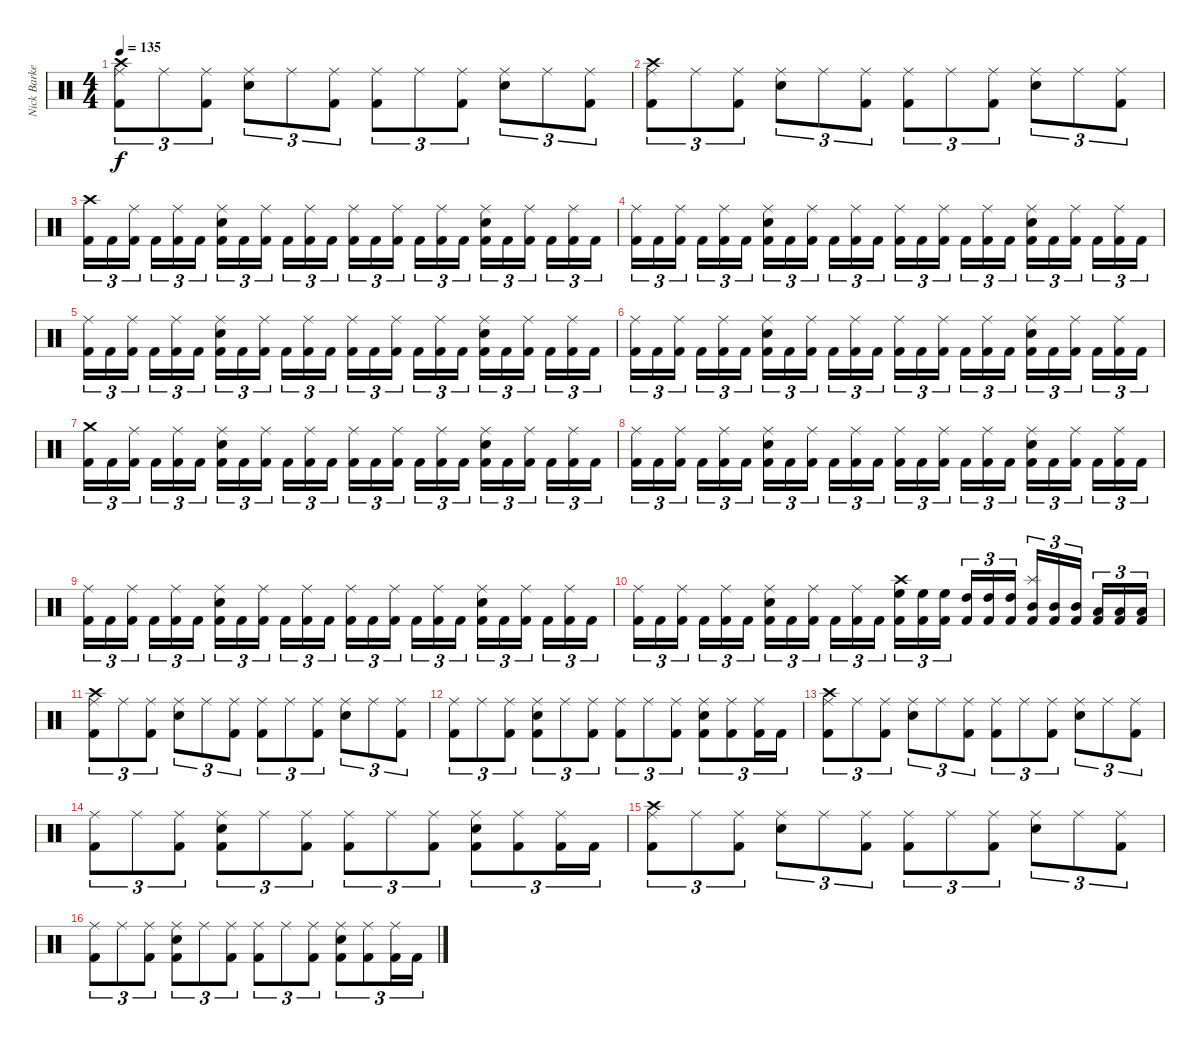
\track ("Nick Barker" "Nick Barke") {instrument percussion}
\staff {score}
\articulation defaults
\ts (4 4)
\tempo 135
\clef neutral
\ks c
("Crash high (hit)" "Ride (middle)" "Kick (hit) 2").8{tu (3 2) dy f} "Ride (middle)".8{tu (3 2)} ("Ride (middle)" "Kick (hit) 2").8{tu (3 2)} ("Ride (middle)" "Electric Snare (hit)").8{tu (3 2)} "Ride (middle)".8{tu (3 2)} ("Ride (middle)" "Kick (hit) 2").8{tu (3 2)} ("Ride (middle)" "Kick (hit) 2").8{tu (3 2)} "Ride (middle)".8{tu (3 2)} ("Ride (middle)" "Kick (hit) 2").8{tu (3 2)} ("Ride (middle)" "Electric Snare (hit)").8{tu (3 2)} "Ride (middle)".8{tu (3 2)} ("Ride (middle)" "Kick (hit) 2").8{tu (3 2)} |
("Crash high (hit)" "Ride (middle)" "Kick (hit) 2").8{tu (3 2)} "Ride (middle)".8{tu (3 2)} ("Ride (middle)" "Kick (hit) 2").8{tu (3 2)} ("Ride (middle)" "Electric Snare (hit)").8{tu (3 2)} "Ride (middle)".8{tu (3 2)} ("Ride (middle)" "Kick (hit) 2").8{tu (3 2)} ("Ride (middle)" "Kick (hit) 2").8{tu (3 2)} "Ride (middle)".8{tu (3 2)} ("Ride (middle)" "Kick (hit) 2").8{tu (3 2)} ("Ride (middle)" "Electric Snare (hit)").8{tu (3 2)} "Ride (middle)".8{tu (3 2)} ("Ride (middle)" "Kick (hit) 2").8{tu (3 2)} |
("Crash high (hit)" "Kick (hit) 2").16{tu (3 2)} "Kick (hit) 2".16{tu (3 2)} ("Ride (middle)" "Kick (hit) 2").16{tu (3 2)} "Kick (hit) 2".16{tu (3 2)} ("Ride (middle)" "Kick (hit) 2").16{tu (3 2)} "Kick (hit) 2".16{tu (3 2)} ("Ride (middle)" "Electric Snare (hit)" "Kick (hit) 2").16{tu (3 2)} "Kick (hit) 2".16{tu (3 2)} ("Ride (middle)" "Kick (hit) 2").16{tu (3 2)} "Kick (hit) 2".16{tu (3 2)} ("Ride (middle)" "Kick (hit) 2").16{tu (3 2)} "Kick (hit) 2".16{tu (3 2)} ("Ride (middle)" "Kick (hit) 2").16{tu (3 2)} "Kick (hit) 2".16{tu (3 2)} ("Ride (middle)" "Kick (hit) 2").16{tu (3 2)} "Kick (hit) 2".16{tu (3 2)} ("Ride (middle)" "Kick (hit) 2").16{tu (3 2)} "Kick (hit) 2".16{tu (3 2)} ("Ride (middle)" "Electric Snare (hit)" "Kick (hit) 2").16{tu (3 2)} "Kick (hit) 2".16{tu (3 2)} ("Ride (middle)" "Kick (hit) 2").16{tu (3 2)} "Kick (hit) 2".16{tu (3 2)} ("Ride (middle)" "Kick (hit) 2").16{tu (3 2)} "Kick (hit) 2".16{tu (3 2)} |
("Ride (middle)" "Kick (hit) 2").16{tu (3 2)} "Kick (hit) 2".16{tu (3 2)} ("Ride (middle)" "Kick (hit) 2").16{tu (3 2)} "Kick (hit) 2".16{tu (3 2)} ("Ride (middle)" "Kick (hit) 2").16{tu (3 2)} "Kick (hit) 2".16{tu (3 2)} ("Ride (middle)" "Electric Snare (hit)" "Kick (hit) 2").16{tu (3 2)} "Kick (hit) 2".16{tu (3 2)} ("Ride (middle)" "Kick (hit) 2").16{tu (3 2)} "Kick (hit) 2".16{tu (3 2)} ("Ride (middle)" "Kick (hit) 2").16{tu (3 2)} "Kick (hit) 2".16{tu (3 2)} ("Ride (middle)" "Kick (hit) 2").16{tu (3 2)} "Kick (hit) 2".16{tu (3 2)} ("Ride (middle)" "Kick (hit) 2").16{tu (3 2)} "Kick (hit) 2".16{tu (3 2)} ("Ride (middle)" "Kick (hit) 2").16{tu (3 2)} "Kick (hit) 2".16{tu (3 2)} ("Ride (middle)" "Electric Snare (hit)" "Kick (hit) 2").16{tu (3 2)} "Kick (hit) 2".16{tu (3 2)} ("Ride (middle)" "Kick (hit) 2").16{tu (3 2)} "Kick (hit) 2".16{tu (3 2)} ("Ride (middle)" "Kick (hit) 2").16{tu (3 2)} "Kick (hit) 2".16{tu (3 2)} |
("Ride (middle)" "Kick (hit) 2").16{tu (3 2)} "Kick (hit) 2".16{tu (3 2)} ("Ride (middle)" "Kick (hit) 2").16{tu (3 2)} "Kick (hit) 2".16{tu (3 2)} ("Ride (middle)" "Kick (hit) 2").16{tu (3 2)} "Kick (hit) 2".16{tu (3 2)} ("Ride (middle)" "Electric Snare (hit)" "Kick (hit) 2").16{tu (3 2)} "Kick (hit) 2".16{tu (3 2)} ("Ride (middle)" "Kick (hit) 2").16{tu (3 2)} "Kick (hit) 2".16{tu (3 2)} ("Ride (middle)" "Kick (hit) 2").16{tu (3 2)} "Kick (hit) 2".16{tu (3 2)} ("Ride (middle)" "Kick (hit) 2").16{tu (3 2)} "Kick (hit) 2".16{tu (3 2)} ("Ride (middle)" "Kick (hit) 2").16{tu (3 2)} "Kick (hit) 2".16{tu (3 2)} ("Ride (middle)" "Kick (hit) 2").16{tu (3 2)} "Kick (hit) 2".16{tu (3 2)} ("Ride (middle)" "Electric Snare (hit)" "Kick (hit) 2").16{tu (3 2)} "Kick (hit) 2".16{tu (3 2)} ("Ride (middle)" "Kick (hit) 2").16{tu (3 2)} "Kick (hit) 2".16{tu (3 2)} ("Ride (middle)" "Kick (hit) 2").16{tu (3 2)} "Kick (hit) 2".16{tu (3 2)} |
("Ride (middle)" "Kick (hit) 2").16{tu (3 2)} "Kick (hit) 2".16{tu (3 2)} ("Ride (middle)" "Kick (hit) 2").16{tu (3 2)} "Kick (hit) 2".16{tu (3 2)} ("Ride (middle)" "Kick (hit) 2").16{tu (3 2)} "Kick (hit) 2".16{tu (3 2)} ("Ride (middle)" "Electric Snare (hit)" "Kick (hit) 2").16{tu (3 2)} "Kick (hit) 2".16{tu (3 2)} ("Ride (middle)" "Kick (hit) 2").16{tu (3 2)} "Kick (hit) 2".16{tu (3 2)} ("Ride (middle)" "Kick (hit) 2").16{tu (3 2)} "Kick (hit) 2".16{tu (3 2)} ("Ride (middle)" "Kick (hit) 2").16{tu (3 2)} "Kick (hit) 2".16{tu (3 2)} ("Ride (middle)" "Kick (hit) 2").16{tu (3 2)} "Kick (hit) 2".16{tu (3 2)} ("Ride (middle)" "Kick (hit) 2").16{tu (3 2)} "Kick (hit) 2".16{tu (3 2)} ("Ride (middle)" "Electric Snare (hit)" "Kick (hit) 2").16{tu (3 2)} "Kick (hit) 2".16{tu (3 2)} ("Ride (middle)" "Kick (hit) 2").16{tu (3 2)} "Kick (hit) 2".16{tu (3 2)} ("Ride (middle)" "Kick (hit) 2").16{tu (3 2)} "Kick (hit) 2".16{tu (3 2)} |
("Crash medium (hit)" "Kick (hit) 2").16{tu (3 2)} "Kick (hit) 2".16{tu (3 2)} ("Ride (middle)" "Kick (hit) 2").16{tu (3 2)} "Kick (hit) 2".16{tu (3 2)} ("Ride (middle)" "Kick (hit) 2").16{tu (3 2)} "Kick (hit) 2".16{tu (3 2)} ("Ride (middle)" "Electric Snare (hit)" "Kick (hit) 2").16{tu (3 2)} "Kick (hit) 2".16{tu (3 2)} ("Ride (middle)" "Kick (hit) 2").16{tu (3 2)} "Kick (hit) 2".16{tu (3 2)} ("Ride (middle)" "Kick (hit) 2").16{tu (3 2)} "Kick (hit) 2".16{tu (3 2)} ("Ride (middle)" "Kick (hit) 2").16{tu (3 2)} "Kick (hit) 2".16{tu (3 2)} ("Ride (middle)" "Kick (hit) 2").16{tu (3 2)} "Kick (hit) 2".16{tu (3 2)} ("Ride (middle)" "Kick (hit) 2").16{tu (3 2)} "Kick (hit) 2".16{tu (3 2)} ("Ride (middle)" "Electric Snare (hit)" "Kick (hit) 2").16{tu (3 2)} "Kick (hit) 2".16{tu (3 2)} ("Ride (middle)" "Kick (hit) 2").16{tu (3 2)} "Kick (hit) 2".16{tu (3 2)} ("Ride (middle)" "Kick (hit) 2").16{tu (3 2)} "Kick (hit) 2".16{tu (3 2)} |
("Ride (middle)" "Kick (hit) 2").16{tu (3 2)} "Kick (hit) 2".16{tu (3 2)} ("Ride (middle)" "Kick (hit) 2").16{tu (3 2)} "Kick (hit) 2".16{tu (3 2)} ("Ride (middle)" "Kick (hit) 2").16{tu (3 2)} "Kick (hit) 2".16{tu (3 2)} ("Ride (middle)" "Electric Snare (hit)" "Kick (hit) 2").16{tu (3 2)} "Kick (hit) 2".16{tu (3 2)} ("Ride (middle)" "Kick (hit) 2").16{tu (3 2)} "Kick (hit) 2".16{tu (3 2)} ("Ride (middle)" "Kick (hit) 2").16{tu (3 2)} "Kick (hit) 2".16{tu (3 2)} ("Ride (middle)" "Kick (hit) 2").16{tu (3 2)} "Kick (hit) 2".16{tu (3 2)} ("Ride (middle)" "Kick (hit) 2").16{tu (3 2)} "Kick (hit) 2".16{tu (3 2)} ("Ride (middle)" "Kick (hit) 2").16{tu (3 2)} "Kick (hit) 2".16{tu (3 2)} ("Ride (middle)" "Electric Snare (hit)" "Kick (hit) 2").16{tu (3 2)} "Kick (hit) 2".16{tu (3 2)} ("Ride (middle)" "Kick (hit) 2").16{tu (3 2)} "Kick (hit) 2".16{tu (3 2)} ("Ride (middle)" "Kick (hit) 2").16{tu (3 2)} "Kick (hit) 2".16{tu (3 2)} |
("Ride (middle)" "Kick (hit) 2").16{tu (3 2)} "Kick (hit) 2".16{tu (3 2)} ("Ride (middle)" "Kick (hit) 2").16{tu (3 2)} "Kick (hit) 2".16{tu (3 2)} ("Ride (middle)" "Kick (hit) 2").16{tu (3 2)} "Kick (hit) 2".16{tu (3 2)} ("Ride (middle)" "Electric Snare (hit)" "Kick (hit) 2").16{tu (3 2)} "Kick (hit) 2".16{tu (3 2)} ("Ride (middle)" "Kick (hit) 2").16{tu (3 2)} "Kick (hit) 2".16{tu (3 2)} ("Ride (middle)" "Kick (hit) 2").16{tu (3 2)} "Kick (hit) 2".16{tu (3 2)} ("Ride (middle)" "Kick (hit) 2").16{tu (3 2)} "Kick (hit) 2".16{tu (3 2)} ("Ride (middle)" "Kick (hit) 2").16{tu (3 2)} "Kick (hit) 2".16{tu (3 2)} ("Ride (middle)" "Kick (hit) 2").16{tu (3 2)} "Kick (hit) 2".16{tu (3 2)} ("Ride (middle)" "Electric Snare (hit)" "Kick (hit) 2").16{tu (3 2)} "Kick (hit) 2".16{tu (3 2)} ("Ride (middle)" "Kick (hit) 2").16{tu (3 2)} "Kick (hit) 2".16{tu (3 2)} ("Ride (middle)" "Kick (hit) 2").16{tu (3 2)} "Kick (hit) 2".16{tu (3 2)} |
("Ride (middle)" "Kick (hit) 2").16{tu (3 2)} "Kick (hit) 2".16{tu (3 2)} ("Ride (middle)" "Kick (hit) 2").16{tu (3 2)} "Kick (hit) 2".16{tu (3 2)} ("Ride (middle)" "Kick (hit) 2").16{tu (3 2)} "Kick (hit) 2".16{tu (3 2)} ("Ride (middle)" "Electric Snare (hit)" "Kick (hit) 2").16{tu (3 2)} "Kick (hit) 2".16{tu (3 2)} ("Ride (middle)" "Kick (hit) 2").16{tu (3 2)} "Kick (hit) 2".16{tu (3 2)} ("Ride (middle)" "Kick (hit) 2").16{tu (3 2)} "Kick (hit) 2".16{tu (3 2)} ("Crash high (hit)" "High Floor Tom (hit)" "Kick (hit) 2").16{tu (3 2)} ("High Floor Tom (hit)" "Kick (hit) 2").16{tu (3 2)} ("High Floor Tom (hit)" "Kick (hit) 2").16{tu (3 2)} ("High Tom (hit)" "Kick (hit) 2").16{tu (3 2)} ("High Tom (hit)" "Kick (hit) 2").16{tu (3 2)} ("High Tom (hit)" "Kick (hit) 2").16{tu (3 2)} ("Splash (hit)" "Mid Tom (hit)" "Kick (hit) 2").16{tu (3 2)} ("Mid Tom (hit)" "Kick (hit) 2").16{tu (3 2)} ("Mid Tom (hit)" "Kick (hit) 2").16{tu (3 2)} ("Low Tom (hit)" "Kick (hit) 2").16{tu (3 2)} ("Low Tom (hit)" "Kick (hit) 2").16{tu (3 2)} ("Low Tom (hit)" "Kick (hit) 2").16{tu (3 2)} |
("Crash high (hit)" "Ride (middle)" "Kick (hit) 2").8{tu (3 2)} "Ride (middle)".8{tu (3 2)} ("Ride (middle)" "Kick (hit) 2").8{tu (3 2)} ("Ride (middle)" "Electric Snare (hit)").8{tu (3 2)} "Ride (middle)".8{tu (3 2)} ("Ride (middle)" "Kick (hit) 2").8{tu (3 2)} ("Ride (middle)" "Kick (hit) 2").8{tu (3 2)} "Ride (middle)".8{tu (3 2)} ("Ride (middle)" "Kick (hit) 2").8{tu (3 2)} ("Ride (middle)" "Electric Snare (hit)").8{tu (3 2)} "Ride (middle)".8{tu (3 2)} ("Ride (middle)" "Kick (hit) 2").8{tu (3 2)} |
("Ride (middle)" "Kick (hit) 2").8{tu (3 2)} "Ride (middle)".8{tu (3 2)} ("Ride (middle)" "Kick (hit) 2").8{tu (3 2)} ("Ride (middle)" "Electric Snare (hit)" "Kick (hit) 2").8{tu (3 2)} "Ride (middle)".8{tu (3 2)} ("Ride (middle)" "Kick (hit) 2").8{tu (3 2)} ("Ride (middle)" "Kick (hit) 2").8{tu (3 2)} "Ride (middle)".8{tu (3 2)} ("Ride (middle)" "Kick (hit) 2").8{tu (3 2)} ("Ride (middle)" "Electric Snare (hit)" "Kick (hit) 2").8{tu (3 2)} ("Ride (middle)" "Kick (hit) 2").8{tu (3 2)} ("Ride (middle)" "Kick (hit) 2").16{tu (3 2)} "Kick (hit) 2".16{tu (3 2)} |
("Crash high (hit)" "Ride (middle)" "Kick (hit) 2").8{tu (3 2)} "Ride (middle)".8{tu (3 2)} ("Ride (middle)" "Kick (hit) 2").8{tu (3 2)} ("Ride (middle)" "Electric Snare (hit)").8{tu (3 2)} "Ride (middle)".8{tu (3 2)} ("Ride (middle)" "Kick (hit) 2").8{tu (3 2)} ("Ride (middle)" "Kick (hit) 2").8{tu (3 2)} "Ride (middle)".8{tu (3 2)} ("Ride (middle)" "Kick (hit) 2").8{tu (3 2)} ("Ride (middle)" "Electric Snare (hit)").8{tu (3 2)} "Ride (middle)".8{tu (3 2)} ("Ride (middle)" "Kick (hit) 2").8{tu (3 2)} |
("Ride (middle)" "Kick (hit) 2").8{tu (3 2)} "Ride (middle)".8{tu (3 2)} ("Ride (middle)" "Kick (hit) 2").8{tu (3 2)} ("Ride (middle)" "Electric Snare (hit)" "Kick (hit) 2").8{tu (3 2)} "Ride (middle)".8{tu (3 2)} ("Ride (middle)" "Kick (hit) 2").8{tu (3 2)} ("Ride (middle)" "Kick (hit) 2").8{tu (3 2)} "Ride (middle)".8{tu (3 2)} ("Ride (middle)" "Kick (hit) 2").8{tu (3 2)} ("Ride (middle)" "Electric Snare (hit)" "Kick (hit) 2").8{tu (3 2)} ("Ride (middle)" "Kick (hit) 2").8{tu (3 2)} ("Ride (middle)" "Kick (hit) 2").16{tu (3 2)} "Kick (hit) 2".16{tu (3 2)} |
("Crash high (hit)" "Ride (middle)" "Kick (hit) 2").8{tu (3 2)} "Ride (middle)".8{tu (3 2)} ("Ride (middle)" "Kick (hit) 2").8{tu (3 2)} ("Ride (middle)" "Electric Snare (hit)").8{tu (3 2)} "Ride (middle)".8{tu (3 2)} ("Ride (middle)" "Kick (hit) 2").8{tu (3 2)} ("Ride (middle)" "Kick (hit) 2").8{tu (3 2)} "Ride (middle)".8{tu (3 2)} ("Ride (middle)" "Kick (hit) 2").8{tu (3 2)} ("Ride (middle)" "Electric Snare (hit)").8{tu (3 2)} "Ride (middle)".8{tu (3 2)} ("Ride (middle)" "Kick (hit) 2").8{tu (3 2)} |
("Ride (middle)" "Kick (hit) 2").8{tu (3 2)} "Ride (middle)".8{tu (3 2)} ("Ride (middle)" "Kick (hit) 2").8{tu (3 2)} ("Ride (middle)" "Electric Snare (hit)" "Kick (hit) 2").8{tu (3 2)} "Ride (middle)".8{tu (3 2)} ("Ride (middle)" "Kick (hit) 2").8{tu (3 2)} ("Ride (middle)" "Kick (hit) 2").8{tu (3 2)} "Ride (middle)".8{tu (3 2)} ("Ride (middle)" "Kick (hit) 2").8{tu (3 2)} ("Ride (middle)" "Electric Snare (hit)" "Kick (hit) 2").8{tu (3 2)} ("Ride (middle)" "Kick (hit) 2").8{tu (3 2)} ("Ride (middle)" "Kick (hit) 2").16{tu (3 2)} "Kick (hit) 2".16{tu (3 2)}
